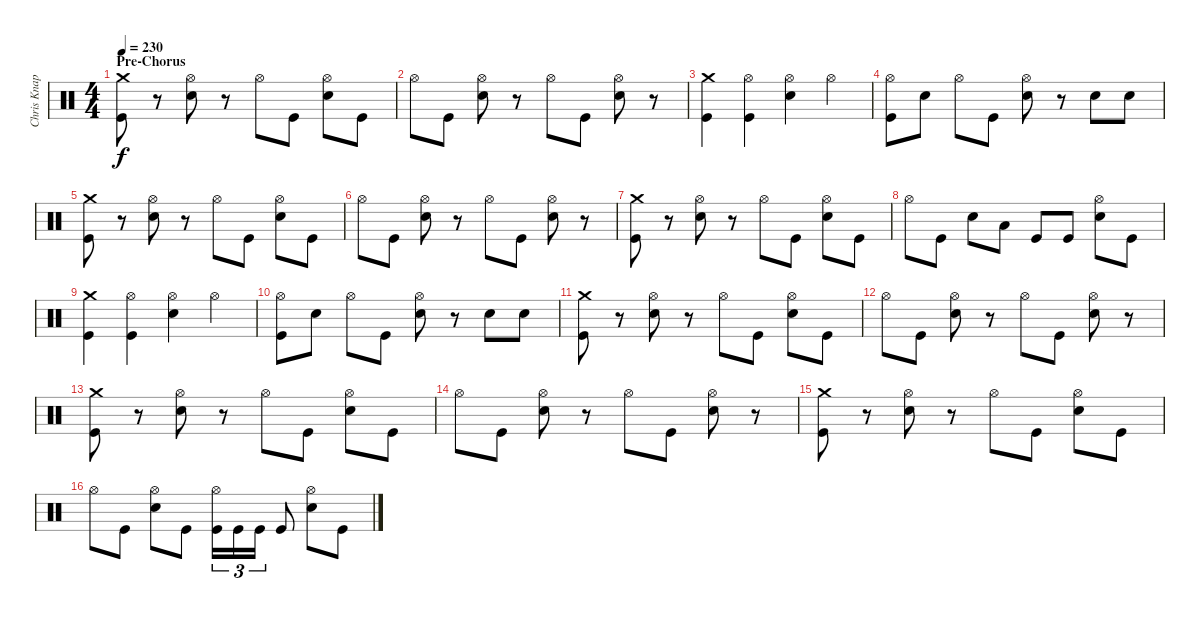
\track ("Chris Knapp" "Chris Knap") {instrument percussion}
\staff {score}
\articulation defaults
\ts (4 4)
\section ("" "Pre-Chorus")
\tempo 230
\clef neutral
\ks c
("Crash medium (hit)" "Kick (hit)").8{dy f} r.8 ("Hi-Hat (open)" "Electric Snare (hit)").8 r.8 "Hi-Hat (open)".8 "Kick (hit)".8 ("Hi-Hat (open)" "Electric Snare (hit)").8 "Kick (hit)".8 |
"Hi-Hat (open)".8 "Kick (hit)".8 ("Hi-Hat (open)" "Electric Snare (hit)").8 r.8 "Hi-Hat (open)".8 "Kick (hit)".8 ("Hi-Hat (open)" "Electric Snare (hit)").8 r.8 |
("Crash medium (hit)" "Kick (hit)").4 ("Hi-Hat (open)" "Kick (hit)").4 ("Hi-Hat (open)" "Electric Snare (hit)").4 "Hi-Hat (open)".4 |
("Hi-Hat (open)" "Kick (hit)").8 "Electric Snare (hit)".8 "Hi-Hat (open)".8 "Kick (hit)".8 ("Hi-Hat (open)" "Electric Snare (hit)").8 r.8 "Electric Snare (hit)".8 "Electric Snare (hit)".8 |
("Crash medium (hit)" "Kick (hit)").8 r.8 ("Hi-Hat (open)" "Electric Snare (hit)").8 r.8 "Hi-Hat (open)".8 "Kick (hit)".8 ("Hi-Hat (open)" "Electric Snare (hit)").8 "Kick (hit)".8 |
"Hi-Hat (open)".8 "Kick (hit)".8 ("Hi-Hat (open)" "Electric Snare (hit)").8 r.8 "Hi-Hat (open)".8 "Kick (hit)".8 ("Hi-Hat (open)" "Electric Snare (hit)").8 r.8 |
("Crash medium (hit)" "Kick (hit)").8 r.8 ("Hi-Hat (open)" "Electric Snare (hit)").8 r.8 "Hi-Hat (open)".8 "Kick (hit)".8 ("Hi-Hat (open)" "Electric Snare (hit)").8 "Kick (hit)".8 |
"Hi-Hat (open)".8 "Kick (hit)".8 "Electric Snare (hit)".8 "Low Floor Tom (hit)".8 "Kick (hit)".8 "Kick (hit)".8 ("Hi-Hat (open)" "Electric Snare (hit)").8 "Kick (hit)".8 |
("Crash medium (hit)" "Kick (hit)").4 ("Hi-Hat (open)" "Kick (hit)").4 ("Hi-Hat (open)" "Electric Snare (hit)").4 "Hi-Hat (open)".4 |
("Hi-Hat (open)" "Kick (hit)").8 "Electric Snare (hit)".8 "Hi-Hat (open)".8 "Kick (hit)".8 ("Hi-Hat (open)" "Electric Snare (hit)").8 r.8 "Electric Snare (hit)".8 "Electric Snare (hit)".8 |
("Crash medium (hit)" "Kick (hit)").8 r.8 ("Hi-Hat (open)" "Electric Snare (hit)").8 r.8 "Hi-Hat (open)".8 "Kick (hit)".8 ("Hi-Hat (open)" "Electric Snare (hit)").8 "Kick (hit)".8 |
"Hi-Hat (open)".8 "Kick (hit)".8 ("Hi-Hat (open)" "Electric Snare (hit)").8 r.8 "Hi-Hat (open)".8 "Kick (hit)".8 ("Hi-Hat (open)" "Electric Snare (hit)").8 r.8 |
("Crash medium (hit)" "Kick (hit)").8 r.8 ("Hi-Hat (open)" "Electric Snare (hit)").8 r.8 "Hi-Hat (open)".8 "Kick (hit)".8 ("Hi-Hat (open)" "Electric Snare (hit)").8 "Kick (hit)".8 |
"Hi-Hat (open)".8 "Kick (hit)".8 ("Hi-Hat (open)" "Electric Snare (hit)").8 r.8 "Hi-Hat (open)".8 "Kick (hit)".8 ("Hi-Hat (open)" "Electric Snare (hit)").8 r.8 |
("Crash medium (hit)" "Kick (hit)").8 r.8 ("Hi-Hat (open)" "Electric Snare (hit)").8 r.8 "Hi-Hat (open)".8 "Kick (hit)".8 ("Hi-Hat (open)" "Electric Snare (hit)").8 "Kick (hit)".8 |
"Hi-Hat (open)".8 "Kick (hit)".8 ("Hi-Hat (open)" "Electric Snare (hit)").8 "Kick (hit)".8 ("Hi-Hat (open)" "Kick (hit)").16{tu (3 2)} "Kick (hit)".16{tu (3 2)} "Kick (hit)".16{tu (3 2)} "Kick (hit)".8 ("Hi-Hat (open)" "Electric Snare (hit)").8 "Kick (hit)".8
